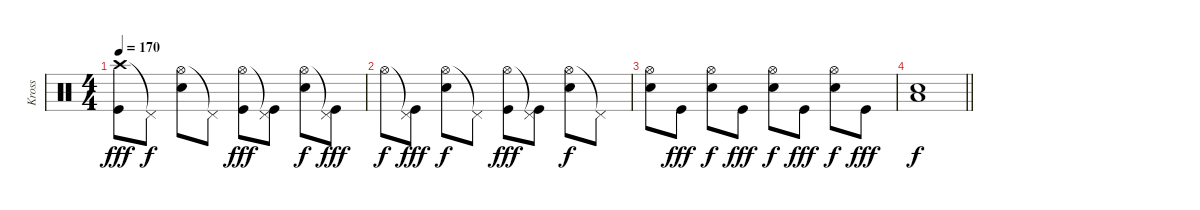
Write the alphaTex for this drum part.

\track ("Kross" "Kross") {instrument percussion}
\staff {score}
\articulation defaults
\ts (4 4)
\tempo 170
\clef neutral
\ks c
("Crash high (hit)" "Kick (hit)").8{dy fff} "Pedal Hi-Hat (hit)"{t}.8{dy f} ("Hi-Hat (open)" "Electric Snare (hit)").8 "Pedal Hi-Hat (hit)"{t}.8 ("Hi-Hat (open)" "Kick (hit)").8{dy fff} ("Pedal Hi-Hat (hit)"{t} "Kick (hit)").8 ("Hi-Hat (open)" "Electric Snare (hit)").8{dy f} ("Pedal Hi-Hat (hit)"{t} "Kick (hit)").8{dy fff} |
"Hi-Hat (open)".8{dy f} ("Pedal Hi-Hat (hit)"{t} "Kick (hit)").8{dy fff} ("Hi-Hat (open)" "Electric Snare (hit)").8{dy f} "Pedal Hi-Hat (hit)"{t}.8 ("Hi-Hat (open)" "Kick (hit)").8{dy fff} ("Pedal Hi-Hat (hit)"{t} "Kick (hit)").8 ("Hi-Hat (open)" "Electric Snare (hit)").8{dy f} "Pedal Hi-Hat (hit)"{t}.8 |
("Hi-Hat (open)" "Electric Snare (hit)").8 "Kick (hit)".8{dy fff} ("Hi-Hat (open)" "Electric Snare (hit)").8{dy f} "Kick (hit)".8{dy fff} ("Hi-Hat (open)" "Electric Snare (hit)").8{dy f} "Kick (hit)".8{dy fff} ("Hi-Hat (open)" "Electric Snare (hit)").8{dy f} "Kick (hit)".8{dy fff} |
\barLineRight lightlight
("Low Floor Tom (hit)" "Electric Snare (hit)").1{dy f}
